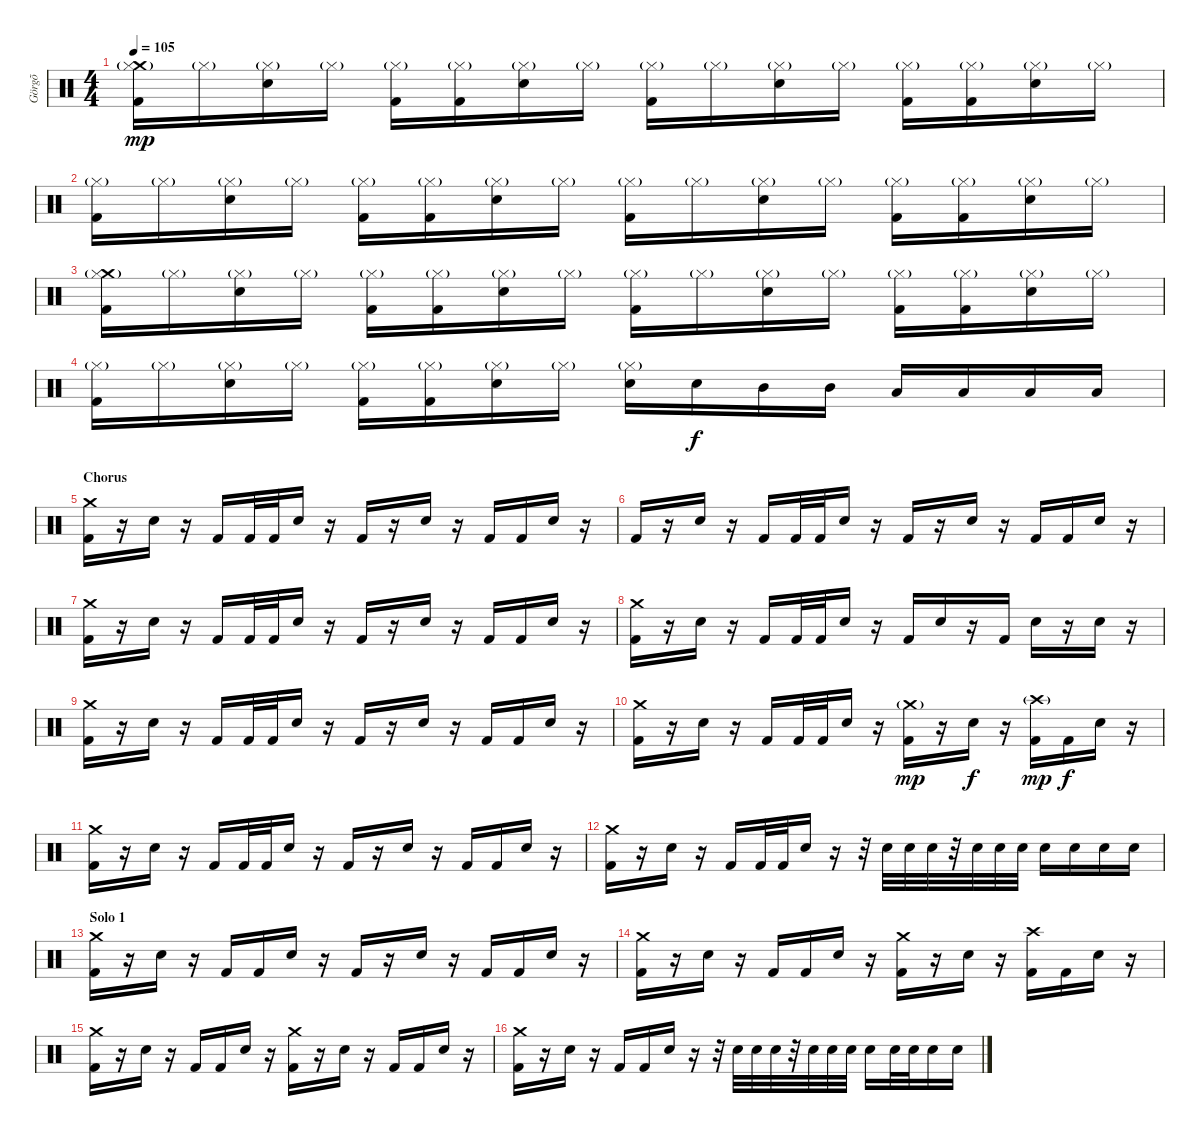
\track ("Görgõ" "Görgõ") {instrument percussion}
\staff {score}
\articulation defaults
\ts (4 4)
\tempo 105
\clef neutral
\ks c
("Crash medium (hit)" "Hi-Hat (closed)"{g} "Kick (hit) 2").16{dy mp} "Hi-Hat (closed)"{g}.16 ("Hi-Hat (closed)"{g} "Snare (hit) 2").16 "Hi-Hat (closed)"{g}.16 ("Hi-Hat (closed)"{g} "Kick (hit) 2").16 ("Hi-Hat (closed)"{g} "Kick (hit) 2").16 ("Hi-Hat (closed)"{g} "Snare (hit) 2").16 "Hi-Hat (closed)"{g}.16 ("Hi-Hat (closed)"{g} "Kick (hit) 2").16 "Hi-Hat (closed)"{g}.16 ("Hi-Hat (closed)"{g} "Snare (hit) 2").16 "Hi-Hat (closed)"{g}.16 ("Hi-Hat (closed)"{g} "Kick (hit) 2").16 ("Hi-Hat (closed)"{g} "Kick (hit) 2").16 ("Hi-Hat (closed)"{g} "Snare (hit) 2").16 "Hi-Hat (closed)"{g}.16 |
("Hi-Hat (closed)"{g} "Kick (hit) 2").16 "Hi-Hat (closed)"{g}.16 ("Hi-Hat (closed)"{g} "Snare (hit) 2").16 "Hi-Hat (closed)"{g}.16 ("Hi-Hat (closed)"{g} "Kick (hit) 2").16 ("Hi-Hat (closed)"{g} "Kick (hit) 2").16 ("Hi-Hat (closed)"{g} "Snare (hit) 2").16 "Hi-Hat (closed)"{g}.16 ("Hi-Hat (closed)"{g} "Kick (hit) 2").16 "Hi-Hat (closed)"{g}.16 ("Hi-Hat (closed)"{g} "Snare (hit) 2").16 "Hi-Hat (closed)"{g}.16 ("Hi-Hat (closed)"{g} "Kick (hit) 2").16 ("Hi-Hat (closed)"{g} "Kick (hit) 2").16 ("Hi-Hat (closed)"{g} "Snare (hit) 2").16 "Hi-Hat (closed)"{g}.16 |
("Crash medium (hit)" "Hi-Hat (closed)"{g} "Kick (hit) 2").16 "Hi-Hat (closed)"{g}.16 ("Hi-Hat (closed)"{g} "Snare (hit) 2").16 "Hi-Hat (closed)"{g}.16 ("Hi-Hat (closed)"{g} "Kick (hit) 2").16 ("Hi-Hat (closed)"{g} "Kick (hit) 2").16 ("Hi-Hat (closed)"{g} "Snare (hit) 2").16 "Hi-Hat (closed)"{g}.16 ("Hi-Hat (closed)"{g} "Kick (hit) 2").16 "Hi-Hat (closed)"{g}.16 ("Hi-Hat (closed)"{g} "Snare (hit) 2").16 "Hi-Hat (closed)"{g}.16 ("Hi-Hat (closed)"{g} "Kick (hit) 2").16 ("Hi-Hat (closed)"{g} "Kick (hit) 2").16 ("Hi-Hat (closed)"{g} "Snare (hit) 2").16 "Hi-Hat (closed)"{g}.16 |
("Hi-Hat (closed)"{g} "Kick (hit) 2").16 "Hi-Hat (closed)"{g}.16 ("Hi-Hat (closed)"{g} "Snare (hit) 2").16 "Hi-Hat (closed)"{g}.16 ("Hi-Hat (closed)"{g} "Kick (hit) 2").16 ("Hi-Hat (closed)"{g} "Kick (hit) 2").16 ("Hi-Hat (closed)"{g} "Snare (hit) 2").16 "Hi-Hat (closed)"{g}.16 ("Hi-Hat (closed)"{g} "Snare (hit) 2").16 "Snare (hit) 2".16{dy f} "Mid Tom (hit)".16 "Mid Tom (hit)".16 "Low Tom (hit)".16 "Low Tom (hit)".16 "Low Floor Tom (hit)".16 "Low Floor Tom (hit)".16 |
\section ("" "Chorus")
("Crash medium (hit)" "Kick (hit) 2").16 r.16 "Snare (hit) 2".16 r.16 "Kick (hit) 2".16 "Kick (hit) 2".32 "Kick (hit) 2".32 "Snare (hit) 2".16 r.16 "Kick (hit) 2".16 r.16 "Snare (hit) 2".16 r.16 "Kick (hit) 2".16 "Kick (hit) 2".16 "Snare (hit) 2".16 r.16 |
"Kick (hit) 2".16 r.16 "Snare (hit) 2".16 r.16 "Kick (hit) 2".16 "Kick (hit) 2".32 "Kick (hit) 2".32 "Snare (hit) 2".16 r.16 "Kick (hit) 2".16 r.16 "Snare (hit) 2".16 r.16 "Kick (hit) 2".16 "Kick (hit) 2".16 "Snare (hit) 2".16 r.16 |
("Crash medium (hit)" "Kick (hit) 2").16 r.16 "Snare (hit) 2".16 r.16 "Kick (hit) 2".16 "Kick (hit) 2".32 "Kick (hit) 2".32 "Snare (hit) 2".16 r.16 "Kick (hit) 2".16 r.16 "Snare (hit) 2".16 r.16 "Kick (hit) 2".16 "Kick (hit) 2".16 "Snare (hit) 2".16 r.16 |
("Crash medium (hit)" "Kick (hit) 2").16 r.16 "Snare (hit) 2".16 r.16 "Kick (hit) 2".16 "Kick (hit) 2".32 "Kick (hit) 2".32 "Snare (hit) 2".16 r.16 "Kick (hit) 2".16 "Snare (hit) 2".16 r.16 "Kick (hit) 2".16 "Snare (hit) 2".16 r.16 "Snare (hit) 2".16 r.16 |
("Crash medium (hit)" "Kick (hit) 2").16 r.16 "Snare (hit) 2".16 r.16 "Kick (hit) 2".16 "Kick (hit) 2".32 "Kick (hit) 2".32 "Snare (hit) 2".16 r.16 "Kick (hit) 2".16 r.16 "Snare (hit) 2".16 r.16 "Kick (hit) 2".16 "Kick (hit) 2".16 "Snare (hit) 2".16 r.16 |
("Crash medium (hit)" "Kick (hit) 2").16 r.16 "Snare (hit) 2".16 r.16 "Kick (hit) 2".16 "Kick (hit) 2".32 "Kick (hit) 2".32 "Snare (hit) 2".16 r.16 ("Crash medium (hit)"{g} "Kick (hit) 2").16{dy mp} r.16 "Snare (hit) 2".16{dy f} r.16 ("Crash high (hit)"{g} "Kick (hit) 2").16{dy mp} "Kick (hit) 2".16{dy f} "Snare (hit) 2".16 r.16 |
("Crash medium (hit)" "Kick (hit) 2").16 r.16 "Snare (hit) 2".16 r.16 "Kick (hit) 2".16 "Kick (hit) 2".32 "Kick (hit) 2".32 "Snare (hit) 2".16 r.16 "Kick (hit) 2".16 r.16 "Snare (hit) 2".16 r.16 "Kick (hit) 2".16 "Kick (hit) 2".16 "Snare (hit) 2".16 r.16 |
("Crash medium (hit)" "Kick (hit) 2").16 r.16 "Snare (hit) 2".16 r.16 "Kick (hit) 2".16 "Kick (hit) 2".32 "Kick (hit) 2".32 "Snare (hit) 2".16 r.16 r.32 "Snare (hit) 2".32 "Snare (hit) 2".32 "Snare (hit) 2".32 r.32 "Snare (hit) 2".32 "Snare (hit) 2".32 "Snare (hit) 2".32 "Snare (hit) 2".16 "Snare (hit) 2".16 "Snare (hit) 2".16 "Snare (hit) 2".16 |
\section ("" "Solo 1")
("Crash medium (hit)" "Kick (hit) 2").16 r.16 "Snare (hit) 2".16 r.16 "Kick (hit) 2".16 "Kick (hit) 2".16 "Snare (hit) 2".16 r.16 "Kick (hit) 2".16 r.16 "Snare (hit) 2".16 r.16 "Kick (hit) 2".16 "Kick (hit) 2".16 "Snare (hit) 2".16 r.16 |
("Crash medium (hit)" "Kick (hit) 2").16 r.16 "Snare (hit) 2".16 r.16 "Kick (hit) 2".16 "Kick (hit) 2".16 "Snare (hit) 2".16 r.16 ("Crash medium (hit)" "Kick (hit) 2").16 r.16 "Snare (hit) 2".16 r.16 ("Crash high (hit)" "Kick (hit) 2").16 "Kick (hit) 2".16 "Snare (hit) 2".16 r.16 |
("Crash medium (hit)" "Kick (hit) 2").16 r.16 "Snare (hit) 2".16 r.16 "Kick (hit) 2".16 "Kick (hit) 2".16 "Snare (hit) 2".16 r.16 ("Crash medium (hit)" "Kick (hit) 2").16 r.16 "Snare (hit) 2".16 r.16 "Kick (hit) 2".16 "Kick (hit) 2".16 "Snare (hit) 2".16 r.16 |
("Crash medium (hit)" "Kick (hit) 2").16 r.16 "Snare (hit) 2".16 r.16 "Kick (hit) 2".16 "Kick (hit) 2".16 "Snare (hit) 2".16 r.16 r.32 "Snare (hit) 2".32 "Snare (hit) 2".32 "Snare (hit) 2".32 r.32 "Snare (hit) 2".32 "Snare (hit) 2".32 "Snare (hit) 2".32 "Snare (hit) 2".16 "Snare (hit) 2".32 "Snare (hit) 2".32 "Snare (hit) 2".16 "Snare (hit) 2".16
